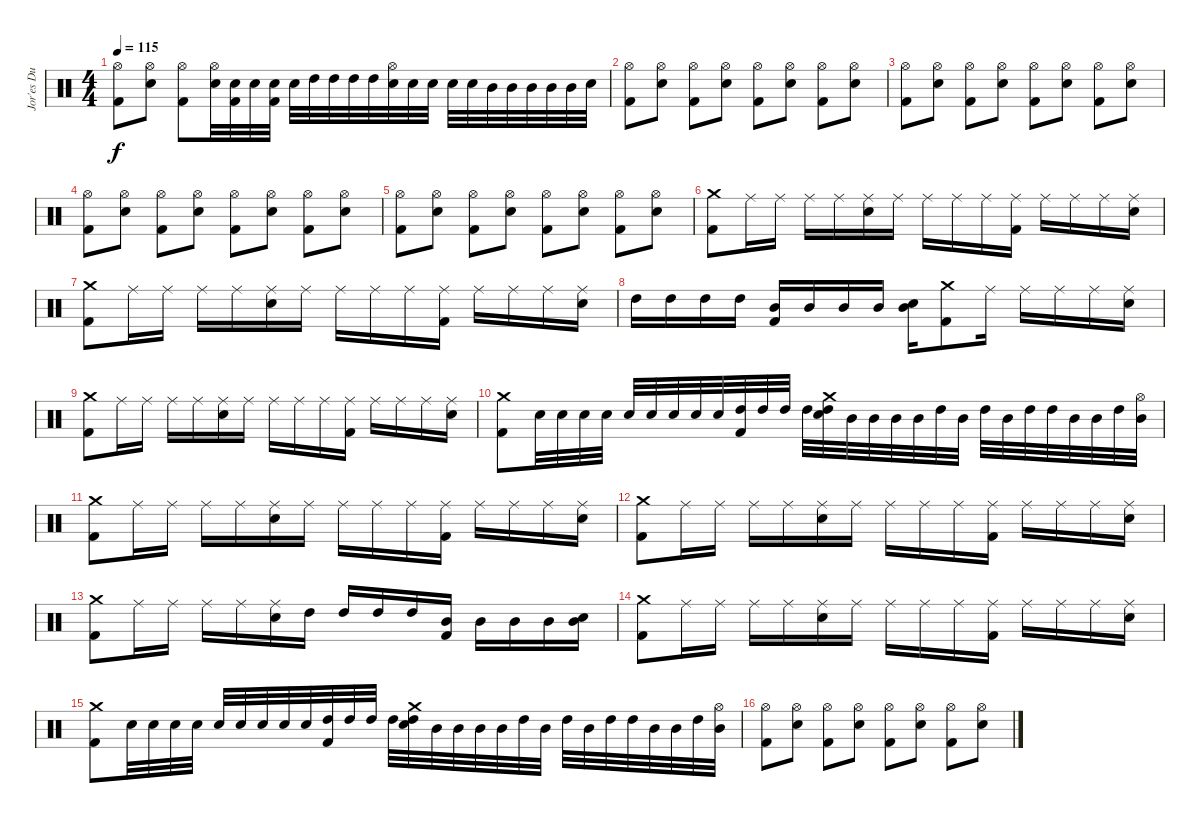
\track ("Jor'es Du True" "Jor'es Du ") {instrument percussion}
\staff {score}
\articulation defaults
\ts (4 4)
\tempo 115
\clef neutral
\ks c
("Hi-Hat (open)" "Kick (hit) 2").8{dy f} ("Hi-Hat (open)" "Electric Snare (hit)").8 ("Hi-Hat (open)" "Kick (hit) 2").8 ("Hi-Hat (open)" "Electric Snare (hit)").32 ("Electric Snare (hit)" "Kick (hit) 2").32 "Electric Snare (hit)".32 ("Electric Snare (hit)" "Kick (hit) 2").32 "Electric Snare (hit)".32 "High Tom (hit)".32 "High Tom (hit)".32 "High Tom (hit)".32 "High Tom (hit)".32 ("Hi-Hat (open)" "Electric Snare (hit)").32 "Electric Snare (hit)".32 "Electric Snare (hit)".32 "Electric Snare (hit)".32 "Electric Snare (hit)".32 "Mid Tom (hit)".32 "Mid Tom (hit)".32 "Mid Tom (hit)".32 "Mid Tom (hit)".32 "Mid Tom (hit)".32 "Electric Snare (hit)".32 |
("Hi-Hat (open)" "Kick (hit) 2").8 ("Hi-Hat (open)" "Electric Snare (hit)").8 ("Hi-Hat (open)" "Kick (hit) 2").8 ("Hi-Hat (open)" "Electric Snare (hit)").8 ("Hi-Hat (open)" "Kick (hit) 2").8 ("Hi-Hat (open)" "Electric Snare (hit)").8 ("Hi-Hat (open)" "Kick (hit) 2").8 ("Hi-Hat (open)" "Electric Snare (hit)").8 |
("Hi-Hat (open)" "Kick (hit) 2").8 ("Hi-Hat (open)" "Electric Snare (hit)").8 ("Hi-Hat (open)" "Kick (hit) 2").8 ("Hi-Hat (open)" "Electric Snare (hit)").8 ("Hi-Hat (open)" "Kick (hit) 2").8 ("Hi-Hat (open)" "Electric Snare (hit)").8 ("Hi-Hat (open)" "Kick (hit) 2").8 ("Hi-Hat (open)" "Electric Snare (hit)").8 |
("Hi-Hat (open)" "Kick (hit) 2").8 ("Hi-Hat (open)" "Electric Snare (hit)").8 ("Hi-Hat (open)" "Kick (hit) 2").8 ("Hi-Hat (open)" "Electric Snare (hit)").8 ("Hi-Hat (open)" "Kick (hit) 2").8 ("Hi-Hat (open)" "Electric Snare (hit)").8 ("Hi-Hat (open)" "Kick (hit) 2").8 ("Hi-Hat (open)" "Electric Snare (hit)").8 |
("Hi-Hat (open)" "Kick (hit) 2").8 ("Hi-Hat (open)" "Electric Snare (hit)").8 ("Hi-Hat (open)" "Kick (hit) 2").8 ("Hi-Hat (open)" "Electric Snare (hit)").8 ("Hi-Hat (open)" "Kick (hit) 2").8 ("Hi-Hat (open)" "Electric Snare (hit)").8 ("Hi-Hat (open)" "Kick (hit) 2").8 ("Hi-Hat (open)" "Electric Snare (hit)").8 |
("Crash medium (hit)" "Kick (hit) 2").8 "Ride (middle)".16 "Ride (middle)".16 "Ride (middle)".16 "Ride (middle)".16 ("Ride (middle)" "Electric Snare (hit)").16 "Ride (middle)".16 "Ride (middle)".16 "Ride (middle)".16 "Ride (middle)".16 ("Ride (middle)" "Kick (hit) 2").16 "Ride (middle)".16 "Ride (middle)".16 "Ride (middle)".16 ("Ride (middle)" "Electric Snare (hit)").16 |
("Crash medium (hit)" "Kick (hit) 2").8 "Ride (middle)".16 "Ride (middle)".16 "Ride (middle)".16 "Ride (middle)".16 ("Ride (middle)" "Electric Snare (hit)").16 "Ride (middle)".16 "Ride (middle)".16 "Ride (middle)".16 "Ride (middle)".16 ("Ride (middle)" "Kick (hit) 2").16 "Ride (middle)".16 "Ride (middle)".16 "Ride (middle)".16 ("Ride (middle)" "Electric Snare (hit)").16 |
"High Tom (hit)".16 "High Tom (hit)".16 "High Tom (hit)".16 "High Tom (hit)".16 ("Mid Tom (hit)" "Kick (hit) 2").16 "Mid Tom (hit)".16 "Mid Tom (hit)".16 "Mid Tom (hit)".16 ("Mid Tom (hit)" "Electric Snare (hit)").16 ("Crash medium (hit)" "Kick (hit) 2").8 "Ride (middle)".16 "Ride (middle)".16 "Ride (middle)".16 "Ride (middle)".16 ("Ride (middle)" "Electric Snare (hit)").16 |
("Crash medium (hit)" "Kick (hit) 2").8 "Ride (middle)".16 "Ride (middle)".16 "Ride (middle)".16 "Ride (middle)".16 ("Ride (middle)" "Electric Snare (hit)").16 "Ride (middle)".16 "Ride (middle)".16 "Ride (middle)".16 "Ride (middle)".16 ("Ride (middle)" "Kick (hit) 2").16 "Ride (middle)".16 "Ride (middle)".16 "Ride (middle)".16 ("Ride (middle)" "Electric Snare (hit)").16 |
("Crash medium (hit)" "Kick (hit) 2").8 "Electric Snare (hit)".32 "Electric Snare (hit)".32 "Electric Snare (hit)".32 "Electric Snare (hit)".32 "Electric Snare (hit)".32 "Electric Snare (hit)".32 "Electric Snare (hit)".32 "Electric Snare (hit)".32 "Electric Snare (hit)".32 ("High Tom (hit)" "Kick (hit) 2").32 "High Tom (hit)".32 "High Tom (hit)".32 "High Tom (hit)".32 ("Crash medium (hit)" "High Tom (hit)" "Electric Snare (hit)").32 "Mid Tom (hit)".32 "Mid Tom (hit)".32 "Mid Tom (hit)".32 "Mid Tom (hit)".32 "High Tom (hit)".32 "Mid Tom (hit)".32 "High Tom (hit)".32 "Mid Tom (hit)".32 "High Tom (hit)".32 "High Tom (hit)".32 "Mid Tom (hit)".32 "Mid Tom (hit)".32 "High Tom (hit)".32 ("Hi-Hat (open)" "Mid Tom (hit)").32 |
("Crash medium (hit)" "Kick (hit) 2").8 "Ride (middle)".16 "Ride (middle)".16 "Ride (middle)".16 "Ride (middle)".16 ("Ride (middle)" "Electric Snare (hit)").16 "Ride (middle)".16 "Ride (middle)".16 "Ride (middle)".16 "Ride (middle)".16 ("Ride (middle)" "Kick (hit) 2").16 "Ride (middle)".16 "Ride (middle)".16 "Ride (middle)".16 ("Ride (middle)" "Electric Snare (hit)").16 |
("Crash medium (hit)" "Kick (hit) 2").8 "Ride (middle)".16 "Ride (middle)".16 "Ride (middle)".16 "Ride (middle)".16 ("Ride (middle)" "Electric Snare (hit)").16 "Ride (middle)".16 "Ride (middle)".16 "Ride (middle)".16 "Ride (middle)".16 ("Ride (middle)" "Kick (hit) 2").16 "Ride (middle)".16 "Ride (middle)".16 "Ride (middle)".16 ("Ride (middle)" "Electric Snare (hit)").16 |
("Crash medium (hit)" "Kick (hit) 2").8 "Ride (middle)".16 "Ride (middle)".16 "Ride (middle)".16 "Ride (middle)".16 ("Ride (middle)" "Electric Snare (hit)").16 "High Tom (hit)".16 "High Tom (hit)".16 "High Tom (hit)".16 "High Tom (hit)".16 ("Mid Tom (hit)" "Kick (hit) 2").16 "Mid Tom (hit)".16 "Mid Tom (hit)".16 "Mid Tom (hit)".16 ("Mid Tom (hit)" "Electric Snare (hit)").16 |
("Crash medium (hit)" "Kick (hit) 2").8 "Ride (middle)".16 "Ride (middle)".16 "Ride (middle)".16 "Ride (middle)".16 ("Ride (middle)" "Electric Snare (hit)").16 "Ride (middle)".16 "Ride (middle)".16 "Ride (middle)".16 "Ride (middle)".16 ("Ride (middle)" "Kick (hit) 2").16 "Ride (middle)".16 "Ride (middle)".16 "Ride (middle)".16 ("Ride (middle)" "Electric Snare (hit)").16 |
("Crash medium (hit)" "Kick (hit) 2").8 "Electric Snare (hit)".32 "Electric Snare (hit)".32 "Electric Snare (hit)".32 "Electric Snare (hit)".32 "Electric Snare (hit)".32 "Electric Snare (hit)".32 "Electric Snare (hit)".32 "Electric Snare (hit)".32 "Electric Snare (hit)".32 ("High Tom (hit)" "Kick (hit) 2").32 "High Tom (hit)".32 "High Tom (hit)".32 "High Tom (hit)".32 ("Crash medium (hit)" "High Tom (hit)" "Electric Snare (hit)").32 "Mid Tom (hit)".32 "Mid Tom (hit)".32 "Mid Tom (hit)".32 "Mid Tom (hit)".32 "High Tom (hit)".32 "Mid Tom (hit)".32 "High Tom (hit)".32 "Mid Tom (hit)".32 "High Tom (hit)".32 "High Tom (hit)".32 "Mid Tom (hit)".32 "Mid Tom (hit)".32 "High Tom (hit)".32 ("Hi-Hat (open)" "Mid Tom (hit)").32 |
("Hi-Hat (open)" "Kick (hit) 2").8 ("Hi-Hat (open)" "Electric Snare (hit)").8 ("Hi-Hat (open)" "Kick (hit) 2").8 ("Hi-Hat (open)" "Electric Snare (hit)").8 ("Hi-Hat (open)" "Kick (hit) 2").8 ("Hi-Hat (open)" "Electric Snare (hit)").8 ("Hi-Hat (open)" "Kick (hit) 2").8 ("Hi-Hat (open)" "Electric Snare (hit)").8
